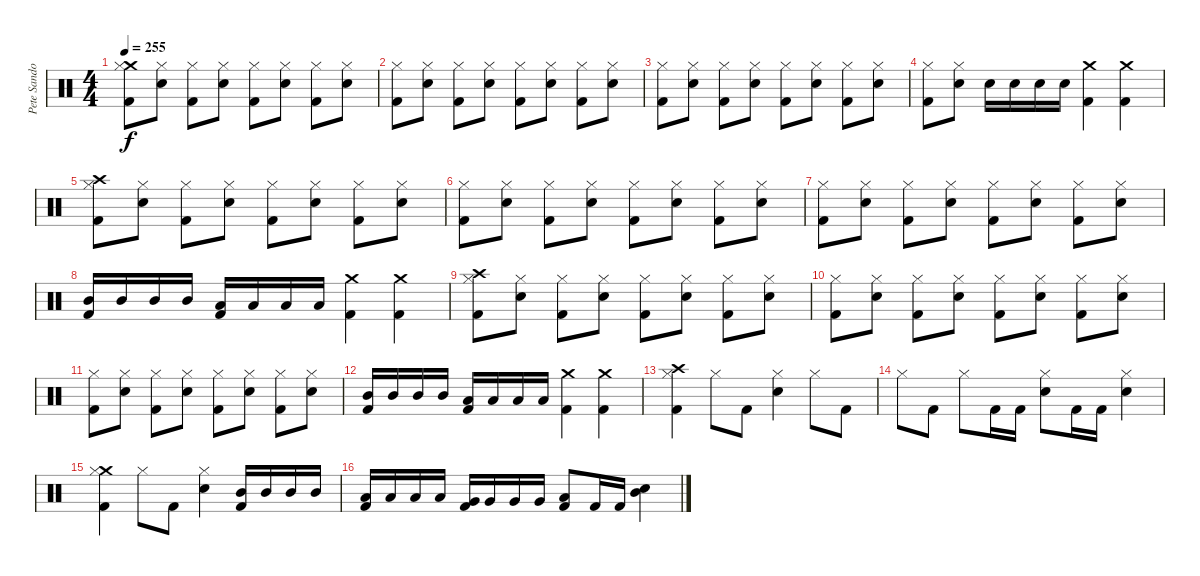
\track ("Pete Sandoval" "Pete Sando") {instrument percussion}
\staff {score}
\articulation defaults
\ts (4 4)
\tempo 255
\clef neutral
\ks c
("Crash medium (hit)" "Hi-Hat (closed)" "Kick (hit) 2").8{dy f} ("Hi-Hat (closed)" "Electric Snare (hit)").8 ("Hi-Hat (closed)" "Kick (hit) 2").8 ("Hi-Hat (closed)" "Electric Snare (hit)").8 ("Hi-Hat (closed)" "Kick (hit) 2").8 ("Hi-Hat (closed)" "Electric Snare (hit)").8 ("Hi-Hat (closed)" "Kick (hit) 2").8 ("Hi-Hat (closed)" "Electric Snare (hit)").8 |
("Hi-Hat (closed)" "Kick (hit) 2").8 ("Hi-Hat (closed)" "Electric Snare (hit)").8 ("Hi-Hat (closed)" "Kick (hit) 2").8 ("Hi-Hat (closed)" "Electric Snare (hit)").8 ("Hi-Hat (closed)" "Kick (hit) 2").8 ("Hi-Hat (closed)" "Electric Snare (hit)").8 ("Hi-Hat (closed)" "Kick (hit) 2").8 ("Hi-Hat (closed)" "Electric Snare (hit)").8 |
("Hi-Hat (closed)" "Kick (hit) 2").8 ("Hi-Hat (closed)" "Electric Snare (hit)").8 ("Hi-Hat (closed)" "Kick (hit) 2").8 ("Hi-Hat (closed)" "Electric Snare (hit)").8 ("Hi-Hat (closed)" "Kick (hit) 2").8 ("Hi-Hat (closed)" "Electric Snare (hit)").8 ("Hi-Hat (closed)" "Kick (hit) 2").8 ("Hi-Hat (closed)" "Electric Snare (hit)").8 |
("Hi-Hat (closed)" "Kick (hit) 2").8 ("Hi-Hat (closed)" "Electric Snare (hit)").8 "Electric Snare (hit)".16 "Electric Snare (hit)".16 "Electric Snare (hit)".16 "Electric Snare (hit)".16 ("Crash medium (hit)" "Kick (hit) 2").4 ("Crash medium (hit)" "Kick (hit) 2").4 |
("Crash high (hit)" "Hi-Hat (closed)" "Kick (hit) 2").8 ("Hi-Hat (closed)" "Electric Snare (hit)").8 ("Hi-Hat (closed)" "Kick (hit) 2").8 ("Hi-Hat (closed)" "Electric Snare (hit)").8 ("Hi-Hat (closed)" "Kick (hit) 2").8 ("Hi-Hat (closed)" "Electric Snare (hit)").8 ("Hi-Hat (closed)" "Kick (hit) 2").8 ("Hi-Hat (closed)" "Electric Snare (hit)").8 |
("Hi-Hat (closed)" "Kick (hit) 2").8 ("Hi-Hat (closed)" "Electric Snare (hit)").8 ("Hi-Hat (closed)" "Kick (hit) 2").8 ("Hi-Hat (closed)" "Electric Snare (hit)").8 ("Hi-Hat (closed)" "Kick (hit) 2").8 ("Hi-Hat (closed)" "Electric Snare (hit)").8 ("Hi-Hat (closed)" "Kick (hit) 2").8 ("Hi-Hat (closed)" "Electric Snare (hit)").8 |
("Hi-Hat (closed)" "Kick (hit) 2").8 ("Hi-Hat (closed)" "Electric Snare (hit)").8 ("Hi-Hat (closed)" "Kick (hit) 2").8 ("Hi-Hat (closed)" "Electric Snare (hit)").8 ("Hi-Hat (closed)" "Kick (hit) 2").8 ("Hi-Hat (closed)" "Electric Snare (hit)").8 ("Hi-Hat (closed)" "Kick (hit) 2").8 ("Hi-Hat (closed)" "Electric Snare (hit)").8 |
("Kick (hit) 2" "Mid Tom (hit)").16 "Mid Tom (hit)".16 "Mid Tom (hit)".16 "Mid Tom (hit)".16 ("Kick (hit) 2" "Low Tom (hit)").16 "Low Tom (hit)".16 "Low Tom (hit)".16 "Low Tom (hit)".16 ("Crash medium (hit)" "Kick (hit) 2").4 ("Crash medium (hit)" "Kick (hit) 2").4 |
("Crash high (hit)" "Hi-Hat (closed)" "Kick (hit) 2").8 ("Hi-Hat (closed)" "Electric Snare (hit)").8 ("Hi-Hat (closed)" "Kick (hit) 2").8 ("Hi-Hat (closed)" "Electric Snare (hit)").8 ("Hi-Hat (closed)" "Kick (hit) 2").8 ("Hi-Hat (closed)" "Electric Snare (hit)").8 ("Hi-Hat (closed)" "Kick (hit) 2").8 ("Hi-Hat (closed)" "Electric Snare (hit)").8 |
("Hi-Hat (closed)" "Kick (hit) 2").8 ("Hi-Hat (closed)" "Electric Snare (hit)").8 ("Hi-Hat (closed)" "Kick (hit) 2").8 ("Hi-Hat (closed)" "Electric Snare (hit)").8 ("Hi-Hat (closed)" "Kick (hit) 2").8 ("Hi-Hat (closed)" "Electric Snare (hit)").8 ("Hi-Hat (closed)" "Kick (hit) 2").8 ("Hi-Hat (closed)" "Electric Snare (hit)").8 |
("Hi-Hat (closed)" "Kick (hit) 2").8 ("Hi-Hat (closed)" "Electric Snare (hit)").8 ("Hi-Hat (closed)" "Kick (hit) 2").8 ("Hi-Hat (closed)" "Electric Snare (hit)").8 ("Hi-Hat (closed)" "Kick (hit) 2").8 ("Hi-Hat (closed)" "Electric Snare (hit)").8 ("Hi-Hat (closed)" "Kick (hit) 2").8 ("Hi-Hat (closed)" "Electric Snare (hit)").8 |
("Kick (hit) 2" "Mid Tom (hit)").16 "Mid Tom (hit)".16 "Mid Tom (hit)".16 "Mid Tom (hit)".16 ("Kick (hit) 2" "Low Tom (hit)").16 "Low Tom (hit)".16 "Low Tom (hit)".16 "Low Tom (hit)".16 ("Crash medium (hit)" "Kick (hit) 2").4 ("Crash medium (hit)" "Kick (hit) 2").4 |
("Crash high (hit)" "Hi-Hat (closed)" "Kick (hit) 2").4 "Hi-Hat (closed)".8 "Kick (hit) 2".8 ("Hi-Hat (closed)" "Electric Snare (hit)").4 "Hi-Hat (closed)".8 "Kick (hit) 2".8 |
"Hi-Hat (closed)".8 "Kick (hit) 2".8 "Hi-Hat (closed)".8 "Kick (hit) 2".16 "Kick (hit) 2".16 ("Hi-Hat (closed)" "Electric Snare (hit)").8 "Kick (hit) 2".16 "Kick (hit) 2".16 ("Hi-Hat (closed)" "Electric Snare (hit)").4 |
("Crash medium (hit)" "Hi-Hat (closed)" "Kick (hit) 2").4 "Hi-Hat (closed)".8 "Kick (hit) 2".8 ("Hi-Hat (closed)" "Electric Snare (hit)").4 ("Mid Tom (hit)" "Kick (hit) 2").16 "Mid Tom (hit)".16 "Mid Tom (hit)".16 "Mid Tom (hit)".16 |
("Low Tom (hit)" "Kick (hit) 2").16 "Low Tom (hit)".16 "Low Tom (hit)".16 "Low Tom (hit)".16 ("Very Low Tom (hit)" "Kick (hit) 2").16 "Very Low Tom (hit)".16 "Very Low Tom (hit)".16 "Very Low Tom (hit)".16 ("Low Floor Tom (hit)" "Kick (hit) 2").8 "Kick (hit) 2".16 "Kick (hit) 2".16 ("Mid Tom (hit)" "Electric Snare (hit)").4
